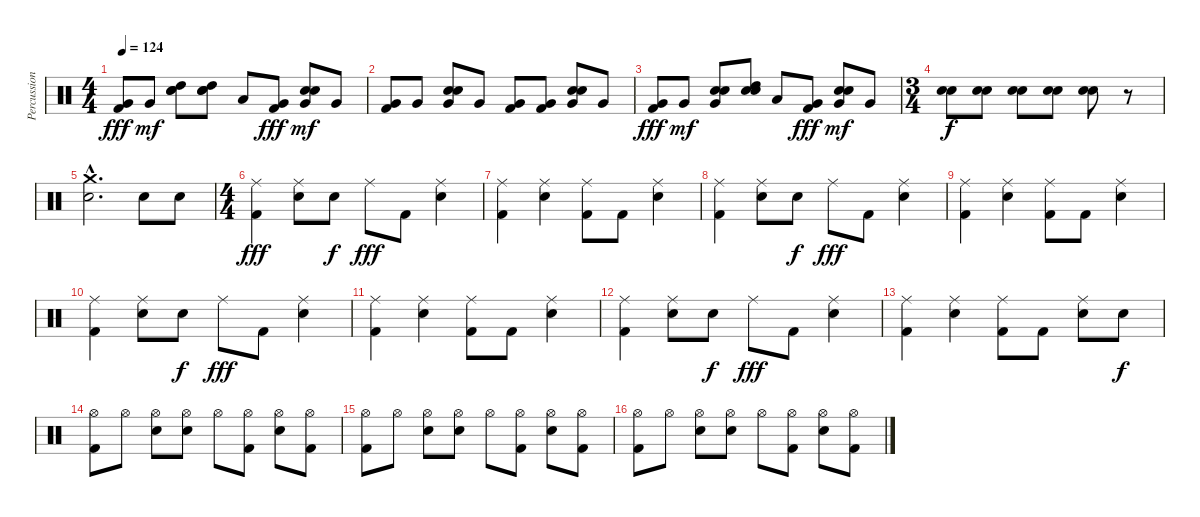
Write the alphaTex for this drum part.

\track ("Percussion" "Percussion") {instrument percussion}
\staff {score}
\articulation defaults
\ts (4 4)
\tempo 124
\clef neutral
\ks c
("Very Low Tom (hit)" "Kick (hit) 2").8{dy fff} "Very Low Tom (hit)".8{dy mf} ("Hand Clap (hit)" "High Tom (hit)" "Snare (hit) 2").8 ("Hand Clap (hit)" "High Tom (hit)" "Snare (hit) 2").8 "Low Tom (hit)".8 ("Very Low Tom (hit)" "Kick (hit) 2").8{dy fff} ("Hand Clap (hit)" "Very Low Tom (hit)" "Snare (hit) 2").8{dy mf} "Very Low Tom (hit)".8 |
("Very Low Tom (hit)" "Kick (hit) 2").8 "Very Low Tom (hit)".8 ("Hand Clap (hit)" "Very Low Tom (hit)" "Snare (hit) 2").8 "Very Low Tom (hit)".8 ("Very Low Tom (hit)" "Kick (hit) 2").8 ("Very Low Tom (hit)" "Kick (hit) 2").8 ("Hand Clap (hit)" "Very Low Tom (hit)" "Snare (hit) 2").8 "Very Low Tom (hit)".8 |
("Very Low Tom (hit)" "Kick (hit) 2").8{dy fff} "Very Low Tom (hit)".8{dy mf} ("Hand Clap (hit)" "Very Low Tom (hit)" "Snare (hit) 2").8 ("Hand Clap (hit)" "High Tom (hit)" "Snare (hit) 2").8 "Low Tom (hit)".8 ("Very Low Tom (hit)" "Kick (hit) 2").8{dy fff} ("Hand Clap (hit)" "Very Low Tom (hit)" "Snare (hit) 2").8{dy mf} "Very Low Tom (hit)".8 |
\ts (3 4)
("Hand Clap (hit)" "Snare (hit) 2").8{dy f} ("Hand Clap (hit)" "Snare (hit) 2").8 ("Hand Clap (hit)" "Snare (hit) 2").8 ("Hand Clap (hit)" "Snare (hit) 2").8 ("Hand Clap (hit)" "Snare (hit) 2").8 r.8 |
("Crash medium (hit)"{hac} "Snare (hit) 2"{hac}).2{d} "Snare (hit) 2".8 "Snare (hit) 2".8 |
\ts (4 4)
("Ride (middle)" "Kick (hit) 2").4{dy fff} ("Ride (middle)" "Snare (hit) 2").8 "Snare (hit) 2".8{dy f} "Ride (middle)".8{dy fff} "Kick (hit) 2".8 ("Ride (middle)" "Snare (hit) 2").4 |
("Ride (middle)" "Kick (hit) 2").4 ("Ride (middle)" "Snare (hit) 2").4 ("Ride (middle)" "Kick (hit) 2").8 "Kick (hit) 2".8 ("Ride (middle)" "Snare (hit) 2").4 |
("Ride (middle)" "Kick (hit) 2").4 ("Ride (middle)" "Snare (hit) 2").8 "Snare (hit) 2".8{dy f} "Ride (middle)".8{dy fff} "Kick (hit) 2".8 ("Ride (middle)" "Snare (hit) 2").4 |
("Ride (middle)" "Kick (hit) 2").4 ("Ride (middle)" "Snare (hit) 2").4 ("Ride (middle)" "Kick (hit) 2").8 "Kick (hit) 2".8 ("Ride (middle)" "Snare (hit) 2").4 |
("Ride (middle)" "Kick (hit) 2").4 ("Ride (middle)" "Snare (hit) 2").8 "Snare (hit) 2".8{dy f} "Ride (middle)".8{dy fff} "Kick (hit) 2".8 ("Ride (middle)" "Snare (hit) 2").4 |
("Ride (middle)" "Kick (hit) 2").4 ("Ride (middle)" "Snare (hit) 2").4 ("Ride (middle)" "Kick (hit) 2").8 "Kick (hit) 2".8 ("Ride (middle)" "Snare (hit) 2").4 |
("Ride (middle)" "Kick (hit) 2").4 ("Ride (middle)" "Snare (hit) 2").8 "Snare (hit) 2".8{dy f} "Ride (middle)".8{dy fff} "Kick (hit) 2".8 ("Ride (middle)" "Snare (hit) 2").4 |
("Ride (middle)" "Kick (hit) 2").4 ("Ride (middle)" "Snare (hit) 2").4 ("Ride (middle)" "Kick (hit) 2").8 "Kick (hit) 2".8 ("Ride (middle)" "Snare (hit) 2").8 "Snare (hit) 2".8{dy f} |
("Hi-Hat (open)" "Kick (hit) 2").8 "Hi-Hat (open)".8 ("Hi-Hat (open)" "Snare (hit) 2").8 ("Hi-Hat (open)" "Snare (hit) 2").8 "Hi-Hat (open)".8 ("Hi-Hat (open)" "Kick (hit) 2").8 ("Hi-Hat (open)" "Snare (hit) 2").8 ("Hi-Hat (open)" "Kick (hit) 2").8 |
("Hi-Hat (open)" "Kick (hit) 2").8 "Hi-Hat (open)".8 ("Hi-Hat (open)" "Snare (hit) 2").8 ("Hi-Hat (open)" "Snare (hit) 2").8 "Hi-Hat (open)".8 ("Hi-Hat (open)" "Kick (hit) 2").8 ("Hi-Hat (open)" "Snare (hit) 2").8 ("Hi-Hat (open)" "Kick (hit) 2").8 |
("Hi-Hat (open)" "Kick (hit) 2").8 "Hi-Hat (open)".8 ("Hi-Hat (open)" "Snare (hit) 2").8 ("Hi-Hat (open)" "Snare (hit) 2").8 "Hi-Hat (open)".8 ("Hi-Hat (open)" "Kick (hit) 2").8 ("Hi-Hat (open)" "Snare (hit) 2").8 ("Hi-Hat (open)" "Kick (hit) 2").8
